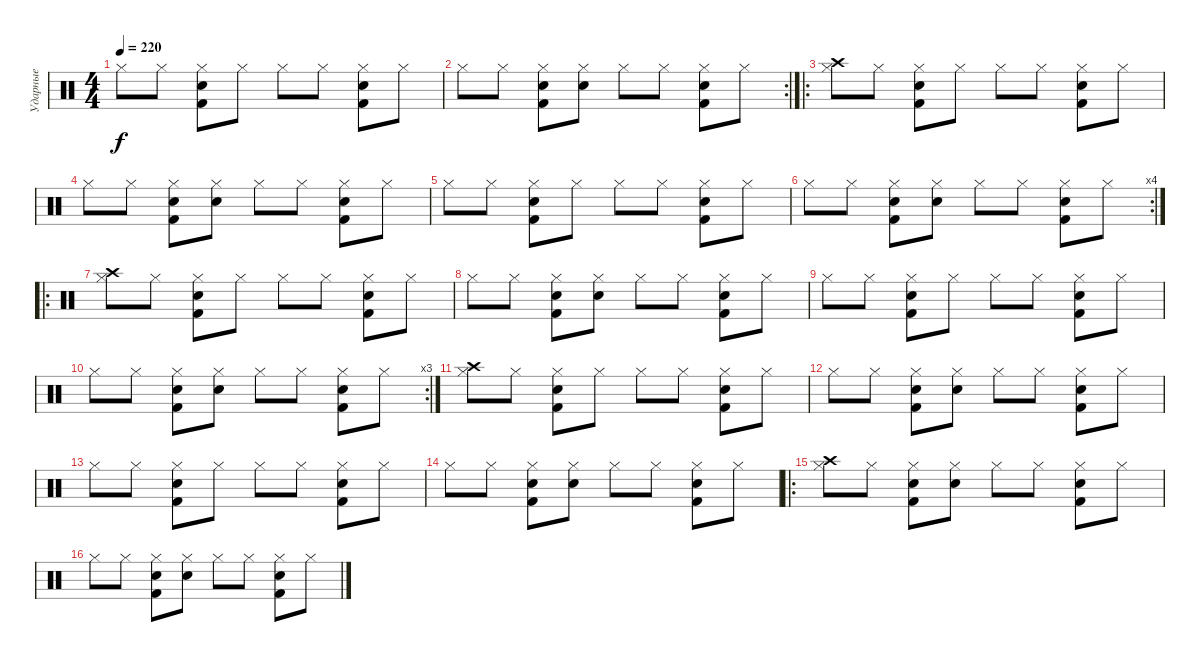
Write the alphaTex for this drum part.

\track ("Ударные" "Ударные") {instrument percussion}
\staff {score}
\articulation defaults
\ts (4 4)
\tempo 220
\clef neutral
\ks c "Hi-Hat (closed)".8{dy f} "Hi-Hat (closed)".8
("Hi-Hat (closed)" "Kick (hit) 2" "Electric Snare (hit)").8 "Hi-Hat (closed)".8 "Hi-Hat (closed)".8 "Hi-Hat (closed)".8 ("Hi-Hat (closed)" "Kick (hit) 2" "Electric Snare (hit)").8 "Hi-Hat (closed)".8 |
\rc 2 "Hi-Hat (closed)".8 "Hi-Hat (closed)".8
("Hi-Hat (closed)" "Kick (hit) 2" "Electric Snare (hit)").8 ("Hi-Hat (closed)" "Electric Snare (hit)").8 "Hi-Hat (closed)".8 "Hi-Hat (closed)".8 ("Hi-Hat (closed)" "Kick (hit) 2" "Electric Snare (hit)").8 "Hi-Hat (closed)".8 |
\ro
("Crash high (hit)" "Hi-Hat (closed)").8 "Hi-Hat (closed)".8 ("Hi-Hat (closed)" "Kick (hit) 2" "Electric Snare (hit)").8 "Hi-Hat (closed)".8 "Hi-Hat (closed)".8 "Hi-Hat (closed)".8 ("Hi-Hat (closed)" "Kick (hit) 2" "Electric Snare (hit)").8 "Hi-Hat (closed)".8 |
"Hi-Hat (closed)".8 "Hi-Hat (closed)".8 ("Hi-Hat (closed)" "Kick (hit) 2" "Electric Snare (hit)").8 ("Hi-Hat (closed)" "Electric Snare (hit)").8 "Hi-Hat (closed)".8 "Hi-Hat (closed)".8 ("Hi-Hat (closed)" "Kick (hit) 2" "Electric Snare (hit)").8 "Hi-Hat (closed)".8 |
"Hi-Hat (closed)".8 "Hi-Hat (closed)".8 ("Hi-Hat (closed)" "Kick (hit) 2" "Electric Snare (hit)").8 "Hi-Hat (closed)".8 "Hi-Hat (closed)".8 "Hi-Hat (closed)".8 ("Hi-Hat (closed)" "Kick (hit) 2" "Electric Snare (hit)").8 "Hi-Hat (closed)".8 |
\rc 4 "Hi-Hat (closed)".8 "Hi-Hat (closed)".8
("Hi-Hat (closed)" "Kick (hit) 2" "Electric Snare (hit)").8 ("Hi-Hat (closed)" "Electric Snare (hit)").8 "Hi-Hat (closed)".8 "Hi-Hat (closed)".8 ("Hi-Hat (closed)" "Kick (hit) 2" "Electric Snare (hit)").8 "Hi-Hat (closed)".8 |
\ro
("Crash high (hit)" "Hi-Hat (closed)").8 "Hi-Hat (closed)".8 ("Hi-Hat (closed)" "Kick (hit) 2" "Electric Snare (hit)").8 "Hi-Hat (closed)".8 "Hi-Hat (closed)".8 "Hi-Hat (closed)".8 ("Hi-Hat (closed)" "Kick (hit) 2" "Electric Snare (hit)").8 "Hi-Hat (closed)".8 |
"Hi-Hat (closed)".8 "Hi-Hat (closed)".8 ("Hi-Hat (closed)" "Kick (hit) 2" "Electric Snare (hit)").8 ("Hi-Hat (closed)" "Electric Snare (hit)").8 "Hi-Hat (closed)".8 "Hi-Hat (closed)".8 ("Hi-Hat (closed)" "Kick (hit) 2" "Electric Snare (hit)").8 "Hi-Hat (closed)".8 |
"Hi-Hat (closed)".8 "Hi-Hat (closed)".8 ("Hi-Hat (closed)" "Kick (hit) 2" "Electric Snare (hit)").8 "Hi-Hat (closed)".8 "Hi-Hat (closed)".8 "Hi-Hat (closed)".8 ("Hi-Hat (closed)" "Kick (hit) 2" "Electric Snare (hit)").8 "Hi-Hat (closed)".8 |
\rc 3 "Hi-Hat (closed)".8 "Hi-Hat (closed)".8
("Hi-Hat (closed)" "Kick (hit) 2" "Electric Snare (hit)").8 ("Hi-Hat (closed)" "Electric Snare (hit)").8 "Hi-Hat (closed)".8 "Hi-Hat (closed)".8 ("Hi-Hat (closed)" "Kick (hit) 2" "Electric Snare (hit)").8 "Hi-Hat (closed)".8 |
("Crash high (hit)" "Hi-Hat (closed)").8 "Hi-Hat (closed)".8 ("Hi-Hat (closed)" "Kick (hit) 2" "Electric Snare (hit)").8 "Hi-Hat (closed)".8 "Hi-Hat (closed)".8 "Hi-Hat (closed)".8 ("Hi-Hat (closed)" "Kick (hit) 2" "Electric Snare (hit)").8 "Hi-Hat (closed)".8 |
"Hi-Hat (closed)".8 "Hi-Hat (closed)".8 ("Hi-Hat (closed)" "Kick (hit) 2" "Electric Snare (hit)").8 ("Hi-Hat (closed)" "Electric Snare (hit)").8 "Hi-Hat (closed)".8 "Hi-Hat (closed)".8 ("Hi-Hat (closed)" "Kick (hit) 2" "Electric Snare (hit)").8 "Hi-Hat (closed)".8 |
"Hi-Hat (closed)".8 "Hi-Hat (closed)".8 ("Hi-Hat (closed)" "Kick (hit) 2" "Electric Snare (hit)").8 "Hi-Hat (closed)".8 "Hi-Hat (closed)".8 "Hi-Hat (closed)".8 ("Hi-Hat (closed)" "Kick (hit) 2" "Electric Snare (hit)").8 "Hi-Hat (closed)".8 |
"Hi-Hat (closed)".8 "Hi-Hat (closed)".8 ("Hi-Hat (closed)" "Kick (hit) 2" "Electric Snare (hit)").8 ("Hi-Hat (closed)" "Electric Snare (hit)").8 "Hi-Hat (closed)".8 "Hi-Hat (closed)".8 ("Hi-Hat (closed)" "Kick (hit) 2" "Electric Snare (hit)").8 "Hi-Hat (closed)".8 |
\ro
("Crash high (hit)" "Hi-Hat (closed)").8 "Hi-Hat (closed)".8 ("Hi-Hat (closed)" "Kick (hit) 2" "Electric Snare (hit)").8 ("Hi-Hat (closed)" "Electric Snare (hit)").8 "Hi-Hat (closed)".8 "Hi-Hat (closed)".8 ("Hi-Hat (closed)" "Kick (hit) 2" "Electric Snare (hit)").8 "Hi-Hat (closed)".8 |
"Hi-Hat (closed)".8 "Hi-Hat (closed)".8 ("Hi-Hat (closed)" "Kick (hit) 2" "Electric Snare (hit)").8 ("Hi-Hat (closed)" "Electric Snare (hit)").8 "Hi-Hat (closed)".8 "Hi-Hat (closed)".8 ("Hi-Hat (closed)" "Kick (hit) 2" "Electric Snare (hit)").8 "Hi-Hat (closed)".8
